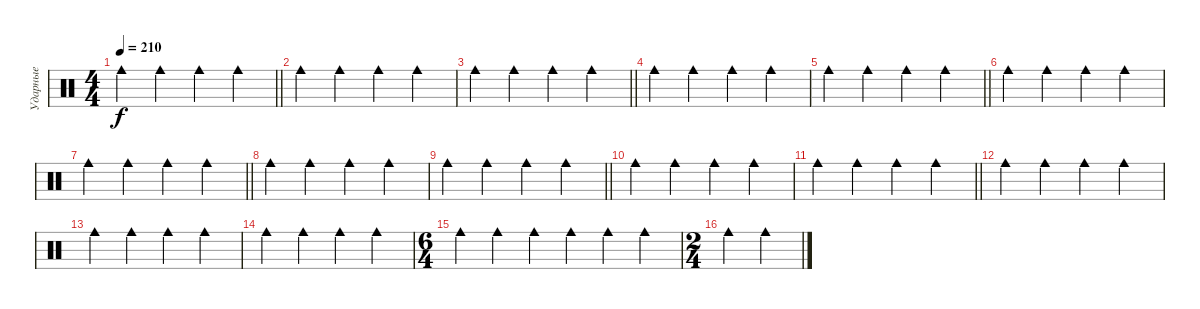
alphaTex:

\track ("Ударные" "Ударные") {mute instrument percussion}
\staff {score}
\articulation defaults
\ts (4 4)
\tempo 210
\clef neutral
\barLineRight lightlight
\ks c "Cowbell medium (hit)".4{dy f} "Cowbell medium (hit)".4 "Cowbell medium (hit)".4 "Cowbell medium (hit)".4
|
"Cowbell medium (hit)".4 "Cowbell medium (hit)".4 "Cowbell medium (hit)".4 "Cowbell medium (hit)".4 |
\barLineRight lightlight "Cowbell medium (hit)".4 "Cowbell medium (hit)".4 "Cowbell medium (hit)".4 "Cowbell medium (hit)".4
|
"Cowbell medium (hit)".4 "Cowbell medium (hit)".4 "Cowbell medium (hit)".4 "Cowbell medium (hit)".4 |
\barLineRight lightlight "Cowbell medium (hit)".4 "Cowbell medium (hit)".4 "Cowbell medium (hit)".4 "Cowbell medium (hit)".4
|
"Cowbell medium (hit)".4 "Cowbell medium (hit)".4 "Cowbell medium (hit)".4 "Cowbell medium (hit)".4 |
\barLineRight lightlight "Cowbell medium (hit)".4 "Cowbell medium (hit)".4 "Cowbell medium (hit)".4 "Cowbell medium (hit)".4
|
"Cowbell medium (hit)".4 "Cowbell medium (hit)".4 "Cowbell medium (hit)".4 "Cowbell medium (hit)".4 |
\barLineRight lightlight "Cowbell medium (hit)".4 "Cowbell medium (hit)".4 "Cowbell medium (hit)".4 "Cowbell medium (hit)".4
|
"Cowbell medium (hit)".4 "Cowbell medium (hit)".4 "Cowbell medium (hit)".4 "Cowbell medium (hit)".4 |
\barLineRight lightlight "Cowbell medium (hit)".4 "Cowbell medium (hit)".4 "Cowbell medium (hit)".4 "Cowbell medium (hit)".4
|
"Cowbell medium (hit)".4 "Cowbell medium (hit)".4 "Cowbell medium (hit)".4 "Cowbell medium (hit)".4 |
"Cowbell medium (hit)".4 "Cowbell medium (hit)".4 "Cowbell medium (hit)".4 "Cowbell medium (hit)".4 |
"Cowbell medium (hit)".4 "Cowbell medium (hit)".4 "Cowbell medium (hit)".4 "Cowbell medium (hit)".4 |
\ts (6 4)
"Cowbell medium (hit)".4 "Cowbell medium (hit)".4 "Cowbell medium (hit)".4 "Cowbell medium (hit)".4 "Cowbell medium (hit)".4 "Cowbell medium (hit)".4 |
\ts (2 4)
"Cowbell medium (hit)".4 "Cowbell medium (hit)".4
